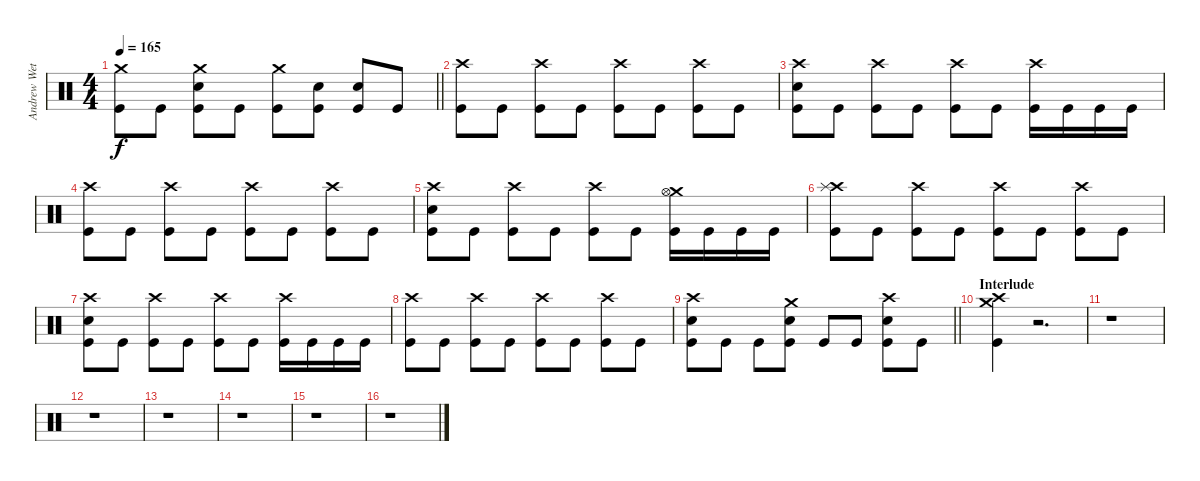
\track ("Andrew Wetzel" "Andrew Wet") {instrument percussion}
\staff {score}
\articulation defaults
\ts (4 4)
\tempo 165
\clef neutral
\barLineRight lightlight
\ks c
("Crash medium (hit)" "Kick (hit)").8{dy f} "Kick (hit)".8 ("Crash medium (hit)" "Snare (hit) 2" "Kick (hit)").8 "Kick (hit)".8 ("Crash medium (hit)" "Kick (hit)").8 ("Snare (hit) 2" "Kick (hit)").8 ("Snare (hit) 2" "Kick (hit)").8 "Kick (hit)".8 |
("Crash high (hit)" "Kick (hit)").8 "Kick (hit)".8 ("Crash high (hit)" "Kick (hit)").8 "Kick (hit)".8 ("Crash high (hit)" "Kick (hit)").8 "Kick (hit)".8 ("Crash high (hit)" "Kick (hit)").8 "Kick (hit)".8 |
("Crash high (hit)" "Snare (hit) 2" "Kick (hit)").8 "Kick (hit)".8 ("Crash high (hit)" "Kick (hit)").8 "Kick (hit)".8 ("Crash high (hit)" "Kick (hit)").8 "Kick (hit)".8 ("Crash high (hit)" "Kick (hit)").16 "Kick (hit)".16 "Kick (hit)".16 "Kick (hit)".16 |
("Crash high (hit)" "Kick (hit)").8 "Kick (hit)".8 ("Crash high (hit)" "Kick (hit)").8 "Kick (hit)".8 ("Crash high (hit)" "Kick (hit)").8 "Kick (hit)".8 ("Crash high (hit)" "Kick (hit)").8 "Kick (hit)".8 |
("Crash high (hit)" "Snare (hit) 2" "Kick (hit)").8 "Kick (hit)".8 ("Crash high (hit)" "Kick (hit)").8 "Kick (hit)".8 ("Crash high (hit)" "Kick (hit)").8 "Kick (hit)".8 ("Crash medium (hit)" "Hi-Hat (open)" "Kick (hit)").16 "Kick (hit)".16 "Kick (hit)".16 "Kick (hit)".16 |
("Crash high (hit)" "Splash (hit)" "Kick (hit)").8 "Kick (hit)".8 ("Crash high (hit)" "Kick (hit)").8 "Kick (hit)".8 ("Crash high (hit)" "Kick (hit)").8 "Kick (hit)".8 ("Crash high (hit)" "Kick (hit)").8 "Kick (hit)".8 |
("Crash high (hit)" "Snare (hit) 2" "Kick (hit)").8 "Kick (hit)".8 ("Crash high (hit)" "Kick (hit)").8 "Kick (hit)".8 ("Crash high (hit)" "Kick (hit)").8 "Kick (hit)".8 ("Crash high (hit)" "Kick (hit)").16 "Kick (hit)".16 "Kick (hit)".16 "Kick (hit)".16 |
("Crash high (hit)" "Kick (hit)").8 "Kick (hit)".8 ("Crash high (hit)" "Kick (hit)").8 "Kick (hit)".8 ("Crash high (hit)" "Kick (hit)").8 "Kick (hit)".8 ("Crash high (hit)" "Kick (hit)").8 "Kick (hit)".8 |
\barLineRight lightlight
("Crash high (hit)" "Snare (hit) 2" "Kick (hit)").8 "Kick (hit)".8 "Kick (hit)".8 ("Crash medium (hit)" "Snare (hit) 2" "Kick (hit)").8 "Kick (hit)".8 "Kick (hit)".8 ("Crash high (hit)" "Snare (hit) 2" "Kick (hit)").8 "Kick (hit)".8 |
\section ("" "Interlude")
("Crash medium (hit)" "Crash high (hit)" "Kick (hit)").4 r.2{d} |
r.1 |
r.1 |
r.1 |
r.1 |
r.1 |
r.1
